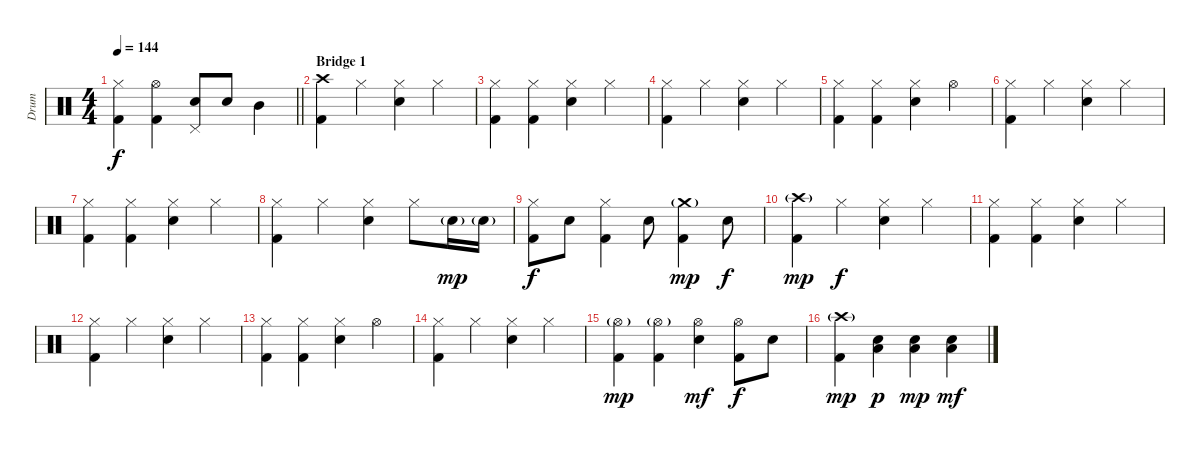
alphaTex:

\track ("Drum" "Drum") {instrument percussion}
\staff {score}
\articulation defaults
\ts (4 4)
\tempo 144
\clef neutral
\barLineRight lightlight
\ks c
("Hi-Hat (closed)" "Kick (hit) 2").4{dy f} ("Hi-Hat (open)" "Kick (hit) 2").4 ("Electric Snare (hit)" "Pedal Hi-Hat (hit)").8 "Electric Snare (hit)".8 "Mid Tom (hit)".4 |
\section ("" "Bridge 1")
("Crash high (hit)" "Kick (hit) 2").4 "Hi-Hat (closed)".4 ("Hi-Hat (closed)" "Electric Snare (hit)").4 "Hi-Hat (closed)".4 |
("Hi-Hat (closed)" "Kick (hit) 2").4 ("Hi-Hat (closed)" "Kick (hit) 2").4 ("Hi-Hat (closed)" "Electric Snare (hit)").4 "Hi-Hat (closed)".4 |
("Hi-Hat (closed)" "Kick (hit) 2").4 "Hi-Hat (closed)".4 ("Hi-Hat (closed)" "Electric Snare (hit)").4 "Hi-Hat (closed)".4 |
("Hi-Hat (closed)" "Kick (hit) 2").4 ("Hi-Hat (closed)" "Kick (hit) 2").4 ("Hi-Hat (closed)" "Electric Snare (hit)").4 "Hi-Hat (open)".4 |
("Hi-Hat (closed)" "Kick (hit) 2").4 "Hi-Hat (closed)".4 ("Hi-Hat (closed)" "Electric Snare (hit)").4 "Hi-Hat (closed)".4 |
("Hi-Hat (closed)" "Kick (hit) 2").4 ("Hi-Hat (closed)" "Kick (hit) 2").4 ("Hi-Hat (closed)" "Electric Snare (hit)").4 "Hi-Hat (closed)".4 |
("Hi-Hat (closed)" "Kick (hit) 2").4 "Hi-Hat (closed)".4 ("Hi-Hat (closed)" "Electric Snare (hit)").4 "Hi-Hat (closed)".8 "Electric Snare (hit)"{g}.16{dy mp} "Electric Snare (hit)"{g}.16 |
("Hi-Hat (closed)" "Kick (hit) 2").8{dy f} "Electric Snare (hit)".8 ("Hi-Hat (closed)" "Kick (hit) 2").4 "Electric Snare (hit)".8 ("Crash medium (hit)"{g} "Kick (hit) 2").4{dy mp} "Electric Snare (hit)".8{dy f} |
("Crash high (hit)"{g} "Kick (hit) 2").4{dy mp} "Hi-Hat (closed)".4{dy f} ("Hi-Hat (closed)" "Electric Snare (hit)").4 "Hi-Hat (closed)".4 |
("Hi-Hat (closed)" "Kick (hit) 2").4 ("Hi-Hat (closed)" "Kick (hit) 2").4 ("Hi-Hat (closed)" "Electric Snare (hit)").4 "Hi-Hat (closed)".4 |
("Hi-Hat (closed)" "Kick (hit) 2").4 "Hi-Hat (closed)".4 ("Hi-Hat (closed)" "Electric Snare (hit)").4 "Hi-Hat (closed)".4 |
("Hi-Hat (closed)" "Kick (hit) 2").4 ("Hi-Hat (closed)" "Kick (hit) 2").4 ("Hi-Hat (closed)" "Electric Snare (hit)").4 "Hi-Hat (open)".4 |
("Hi-Hat (closed)" "Kick (hit) 2").4 "Hi-Hat (closed)".4 ("Hi-Hat (closed)" "Electric Snare (hit)").4 "Hi-Hat (closed)".4 |
("Hi-Hat (open)"{g} "Kick (hit) 2").4{dy mp} ("Hi-Hat (open)"{g} "Kick (hit) 2").4 ("Hi-Hat (open)" "Electric Snare (hit)").4{dy mf} ("Hi-Hat (open)" "Kick (hit) 2").8{dy f} "Electric Snare (hit)".8 |
("Crash high (hit)"{g} "Kick (hit) 2").4{dy mp} ("Electric Snare (hit)" "Low Floor Tom (hit)").4{dy p} ("Electric Snare (hit)" "Low Floor Tom (hit)").4{dy mp} ("Electric Snare (hit)" "Low Floor Tom (hit)").4{dy mf}
